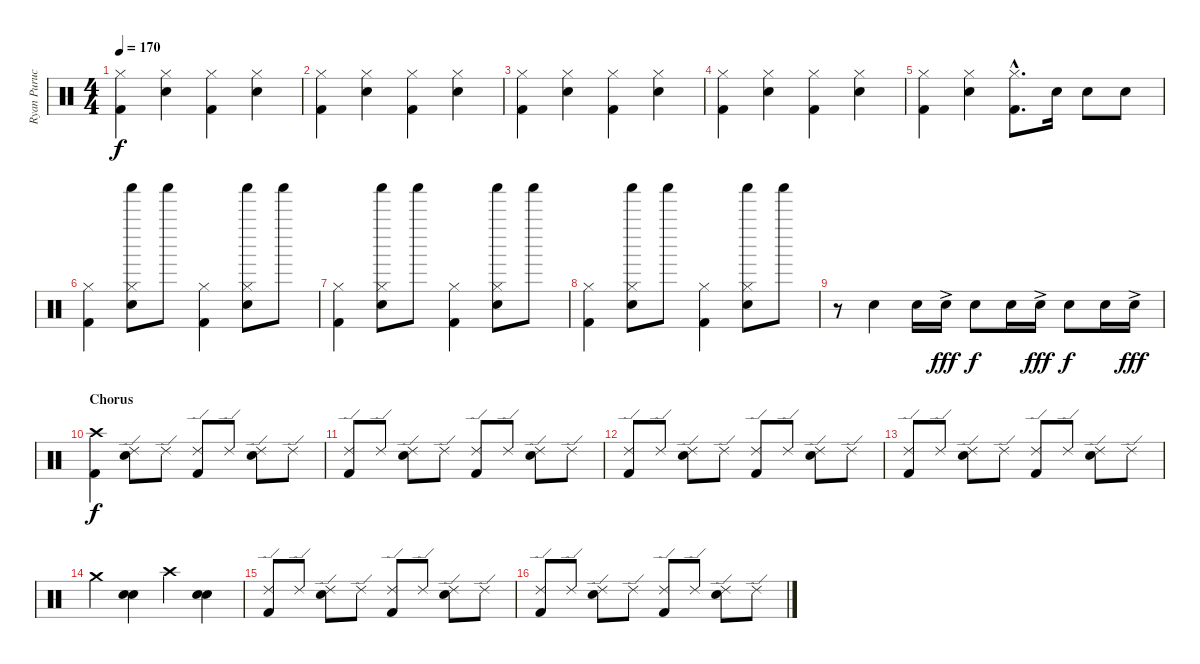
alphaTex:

\track ("Ryan Purucker" "Ryan Puruc") {instrument percussion}
\staff {score}
\articulation defaults
\ts (4 4)
\tempo 170
\clef neutral
\ks c
("Hi-Hat (closed)" "Kick (hit) 2").4{dy f} ("Hi-Hat (closed)" "Snare (hit) 2").4 ("Hi-Hat (closed)" "Kick (hit) 2").4 ("Hi-Hat (closed)" "Snare (hit) 2").4 |
("Hi-Hat (closed)" "Kick (hit) 2").4 ("Hi-Hat (closed)" "Snare (hit) 2").4 ("Hi-Hat (closed)" "Kick (hit) 2").4 ("Hi-Hat (closed)" "Snare (hit) 2").4 |
("Hi-Hat (closed)" "Kick (hit) 2").4 ("Hi-Hat (closed)" "Snare (hit) 2").4 ("Hi-Hat (closed)" "Kick (hit) 2").4 ("Hi-Hat (closed)" "Snare (hit) 2").4 |
("Hi-Hat (closed)" "Kick (hit) 2").4 ("Hi-Hat (closed)" "Snare (hit) 2").4 ("Hi-Hat (closed)" "Kick (hit) 2").4 ("Hi-Hat (closed)" "Snare (hit) 2").4 |
("Hi-Hat (closed)" "Kick (hit) 2").4 ("Hi-Hat (closed)" "Snare (hit) 2").4 ("Hi-Hat (closed)"{hac} "Kick (hit) 2"{hac}).8{d} "Electric Snare (hit)".16 "Electric Snare (hit)".8 "Electric Snare (hit)".8 |
("Hi-Hat (closed)" "Kick (hit) 2").4 ("Shaker (hit)" "Hi-Hat (closed)" "Snare (hit) 2").8 "Shaker (hit)".8 ("Hi-Hat (closed)" "Kick (hit) 2").4 ("Shaker (hit)" "Hi-Hat (closed)" "Snare (hit) 2").8 "Shaker (hit)".8 |
("Hi-Hat (closed)" "Kick (hit) 2").4 ("Shaker (hit)" "Hi-Hat (closed)" "Snare (hit) 2").8 "Shaker (hit)".8 ("Hi-Hat (closed)" "Kick (hit) 2").4 ("Shaker (hit)" "Hi-Hat (closed)" "Snare (hit) 2").8 "Shaker (hit)".8 |
("Kick (hit) 2" "Hi-Hat (closed)").4 ("Snare (hit) 2" "Hi-Hat (closed)" "Shaker (hit)").8 "Shaker (hit)".8 ("Kick (hit) 2" "Hi-Hat (closed)").4 ("Snare (hit) 2" "Hi-Hat (closed)" "Shaker (hit)").8 "Shaker (hit)".8 |
r.8 "Electric Snare (hit)".4 "Electric Snare (hit)".16 "Electric Snare (hit)"{ac}.16{dy fff} "Electric Snare (hit)".8{dy f} "Electric Snare (hit)".16 "Electric Snare (hit)"{ac}.16{dy fff} "Electric Snare (hit)".8{dy f} "Electric Snare (hit)".16 "Electric Snare (hit)"{ac}.16{dy fff} |
\section ("" "Chorus")
("Crash high (hit)" "Kick (hit) 2").4{dy f} ("Ride (edge) 2" "Snare (hit) 2").8 "Ride (edge) 2".8 ("Ride (edge) 2" "Kick (hit) 2").8 "Ride (edge) 2".8 ("Ride (edge) 2" "Snare (hit) 2").8 "Ride (edge) 2".8 |
("Ride (edge) 2" "Kick (hit) 2").8 "Ride (edge) 2".8 ("Ride (edge) 2" "Snare (hit) 2").8 "Ride (edge) 2".8 ("Ride (edge) 2" "Kick (hit) 2").8 "Ride (edge) 2".8 ("Ride (edge) 2" "Snare (hit) 2").8 "Ride (edge) 2".8 |
("Ride (edge) 2" "Kick (hit) 2").8 "Ride (edge) 2".8 ("Ride (edge) 2" "Snare (hit) 2").8 "Ride (edge) 2".8 ("Ride (edge) 2" "Kick (hit) 2").8 "Ride (edge) 2".8 ("Ride (edge) 2" "Snare (hit) 2").8 "Ride (edge) 2".8 |
("Ride (edge) 2" "Kick (hit) 2").8 "Ride (edge) 2".8 ("Ride (edge) 2" "Snare (hit) 2").8 "Ride (edge) 2".8 ("Ride (edge) 2" "Kick (hit) 2").8 "Ride (edge) 2".8 ("Ride (edge) 2" "Snare (hit) 2").8 "Ride (edge) 2".8 |
"Crash medium (hit)".4 ("Snare (hit) 2" "Snare (hit) 2").4 "Crash high (hit)".4 ("Snare (hit) 2" "Snare (hit) 2").4 |
("Ride (edge) 2" "Kick (hit) 2").8 "Ride (edge) 2".8 ("Ride (edge) 2" "Snare (hit) 2").8 "Ride (edge) 2".8 ("Ride (edge) 2" "Kick (hit) 2").8 "Ride (edge) 2".8 ("Ride (edge) 2" "Snare (hit) 2").8 "Ride (edge) 2".8 |
("Ride (edge) 2" "Kick (hit) 2").8 "Ride (edge) 2".8 ("Ride (edge) 2" "Snare (hit) 2").8 "Ride (edge) 2".8 ("Ride (edge) 2" "Kick (hit) 2").8 "Ride (edge) 2".8 ("Ride (edge) 2" "Snare (hit) 2").8 "Ride (edge) 2".8
